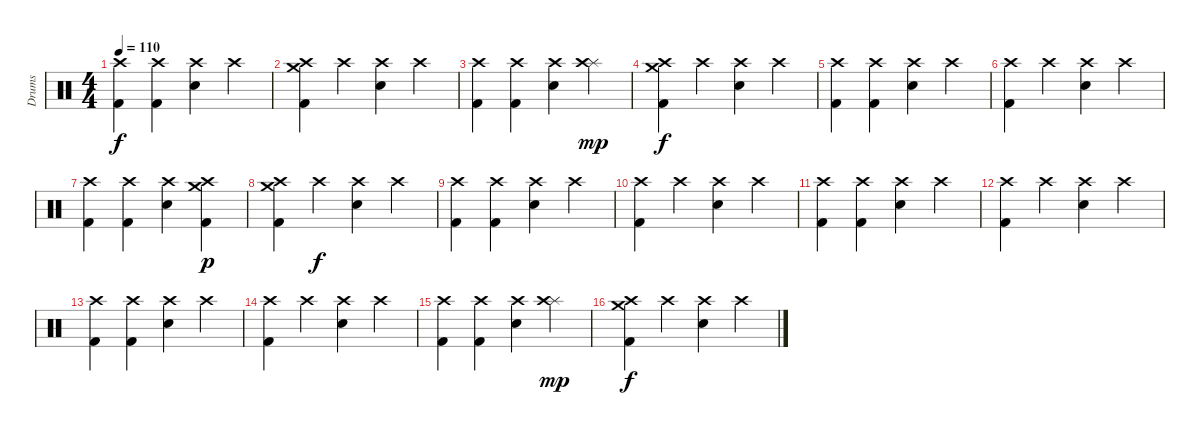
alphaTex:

\track ("Drums" "Drums") {instrument percussion}
\staff {score}
\articulation defaults
\ts (4 4)
\tempo 110
\clef neutral
\ks c
("Crash high (hit)" "Kick (hit) 2").4{dy f} ("Crash high (hit)" "Kick (hit) 2").4 ("Crash high (hit)" "Snare (hit) 2").4 "Crash high (hit)".4 |
("Crash medium (hit)" "Crash high (hit)" "Kick (hit) 2").4 "Crash high (hit)".4 ("Crash high (hit)" "Snare (hit) 2").4 "Crash high (hit)".4 |
("Crash high (hit)" "Kick (hit) 2").4 ("Crash high (hit)" "Kick (hit) 2").4 ("Crash high (hit)" "Snare (hit) 2").4 ("Splash (hit)" "Crash high (hit)").4{dy mp} |
("Crash medium (hit)" "Crash high (hit)" "Kick (hit) 2").4{dy f} "Crash high (hit)".4 ("Crash high (hit)" "Snare (hit) 2").4 "Crash high (hit)".4 |
("Crash high (hit)" "Kick (hit) 2").4 ("Crash high (hit)" "Kick (hit) 2").4 ("Crash high (hit)" "Snare (hit) 2").4 "Crash high (hit)".4 |
("Crash high (hit)" "Kick (hit) 2").4 "Crash high (hit)".4 ("Crash high (hit)" "Snare (hit) 2").4 "Crash high (hit)".4 |
("Crash high (hit)" "Kick (hit) 2").4 ("Crash high (hit)" "Kick (hit) 2").4 ("Crash high (hit)" "Snare (hit) 2").4 ("Crash medium (hit)" "Crash high (hit)" "Kick (hit) 2").4{dy p} |
("Crash medium (hit)" "Crash high (hit)" "Kick (hit) 2").4 "Crash high (hit)".4{dy f} ("Crash high (hit)" "Snare (hit) 2").4 "Crash high (hit)".4 |
("Crash high (hit)" "Kick (hit) 2").4 ("Crash high (hit)" "Kick (hit) 2").4 ("Crash high (hit)" "Snare (hit) 2").4 "Crash high (hit)".4 |
("Crash high (hit)" "Kick (hit) 2").4 "Crash high (hit)".4 ("Crash high (hit)" "Snare (hit) 2").4 "Crash high (hit)".4 |
("Crash high (hit)" "Kick (hit) 2").4 ("Crash high (hit)" "Kick (hit) 2").4 ("Crash high (hit)" "Snare (hit) 2").4 "Crash high (hit)".4 |
("Crash high (hit)" "Kick (hit) 2").4 "Crash high (hit)".4 ("Crash high (hit)" "Snare (hit) 2").4 "Crash high (hit)".4 |
("Crash high (hit)" "Kick (hit) 2").4 ("Crash high (hit)" "Kick (hit) 2").4 ("Crash high (hit)" "Snare (hit) 2").4 "Crash high (hit)".4 |
("Crash high (hit)" "Kick (hit) 2").4 "Crash high (hit)".4 ("Crash high (hit)" "Snare (hit) 2").4 "Crash high (hit)".4 |
("Crash high (hit)" "Kick (hit) 2").4 ("Crash high (hit)" "Kick (hit) 2").4 ("Crash high (hit)" "Snare (hit) 2").4 ("Splash (hit)" "Crash high (hit)").4{dy mp} |
("Crash medium (hit)" "Crash high (hit)" "Kick (hit) 2").4{dy f} "Crash high (hit)".4 ("Crash high (hit)" "Snare (hit) 2").4 "Crash high (hit)".4
